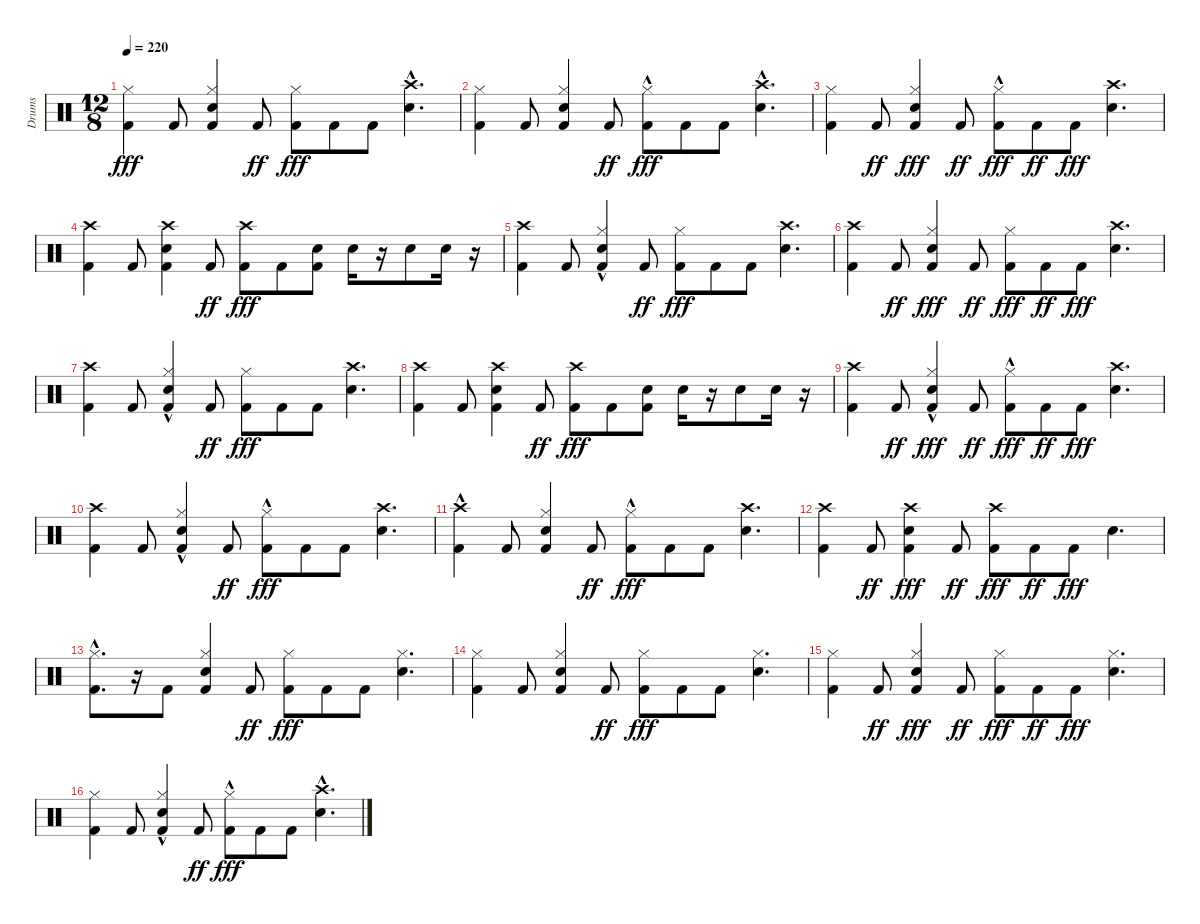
\track ("Drums" "Drums") {instrument percussion}
\staff {score}
\articulation defaults
\ts (12 8)
\tempo 220
\clef neutral
\ks c
("Kick (hit) 2" "Hi-Hat (closed)").4{dy fff} "Kick (hit) 2".8 ("Kick (hit) 2" "Snare (hit) 2" "Hi-Hat (closed)").4 "Kick (hit) 2".8{dy ff} ("Kick (hit) 2" "Hi-Hat (closed)").8{dy fff} "Kick (hit) 2".8 "Kick (hit) 2".8 ("Snare (hit) 2" "Crash high (hit)"{hac}).4{d} |
("Kick (hit) 2" "Hi-Hat (closed)").4 "Kick (hit) 2".8 ("Kick (hit) 2" "Snare (hit) 2" "Hi-Hat (closed)").4 "Kick (hit) 2".8{dy ff} ("Kick (hit) 2" "Hi-Hat (closed)"{hac}).8{dy fff} "Kick (hit) 2".8 "Kick (hit) 2".8 ("Snare (hit) 2" "Crash high (hit)"{hac}).4{d} |
("Kick (hit) 2" "Hi-Hat (closed)").4 "Kick (hit) 2".8{dy ff} ("Kick (hit) 2" "Snare (hit) 2" "Hi-Hat (closed)").4{dy fff} "Kick (hit) 2".8{dy ff} ("Kick (hit) 2" "Hi-Hat (closed)"{hac}).8{dy fff} "Kick (hit) 2".8{dy ff} "Kick (hit) 2".8{dy fff} ("Snare (hit) 2" "Crash high (hit)").4{d} |
("Kick (hit) 2" "Crash high (hit)").4 "Kick (hit) 2".8 ("Kick (hit) 2" "Snare (hit) 2" "Crash high (hit)").4 "Kick (hit) 2".8{dy ff} ("Kick (hit) 2" "Crash high (hit)").8{dy fff} "Kick (hit) 2".8 ("Kick (hit) 2" "Snare (hit) 2").8 "Snare (hit) 2".16 r.16 "Snare (hit) 2".8 "Snare (hit) 2".16 r.16 |
("Kick (hit) 2" "Crash high (hit)").4 "Kick (hit) 2".8 ("Kick (hit) 2" "Snare (hit) 2" "Hi-Hat (closed)"{hac}).4 "Kick (hit) 2".8{dy ff} ("Kick (hit) 2" "Hi-Hat (closed)").8{dy fff} "Kick (hit) 2".8 "Kick (hit) 2".8 ("Snare (hit) 2" "Crash high (hit)").4{d} |
("Kick (hit) 2" "Crash high (hit)").4 "Kick (hit) 2".8{dy ff} ("Kick (hit) 2" "Snare (hit) 2" "Hi-Hat (closed)").4{dy fff} "Kick (hit) 2".8{dy ff} ("Kick (hit) 2" "Hi-Hat (closed)").8{dy fff} "Kick (hit) 2".8{dy ff} "Kick (hit) 2".8{dy fff} ("Snare (hit) 2" "Crash high (hit)").4{d} |
("Kick (hit) 2" "Crash high (hit)").4 "Kick (hit) 2".8 ("Kick (hit) 2" "Snare (hit) 2" "Hi-Hat (closed)"{hac}).4 "Kick (hit) 2".8{dy ff} ("Kick (hit) 2" "Hi-Hat (closed)").8{dy fff} "Kick (hit) 2".8 "Kick (hit) 2".8 ("Snare (hit) 2" "Crash high (hit)").4{d} |
("Kick (hit) 2" "Crash high (hit)").4 "Kick (hit) 2".8 ("Kick (hit) 2" "Snare (hit) 2" "Crash high (hit)").4 "Kick (hit) 2".8{dy ff} ("Kick (hit) 2" "Crash high (hit)").8{dy fff} "Kick (hit) 2".8 ("Kick (hit) 2" "Snare (hit) 2").8 "Snare (hit) 2".16 r.16 "Snare (hit) 2".8 "Snare (hit) 2".16 r.16 |
("Kick (hit) 2" "Crash high (hit)").4 "Kick (hit) 2".8{dy ff} ("Kick (hit) 2" "Snare (hit) 2" "Hi-Hat (closed)"{hac}).4{dy fff} "Kick (hit) 2".8{dy ff} ("Kick (hit) 2" "Hi-Hat (closed)"{hac}).8{dy fff} "Kick (hit) 2".8{dy ff} "Kick (hit) 2".8{dy fff} ("Snare (hit) 2" "Crash high (hit)").4{d} |
("Kick (hit) 2" "Crash high (hit)").4 "Kick (hit) 2".8 ("Kick (hit) 2" "Snare (hit) 2" "Hi-Hat (closed)"{hac}).4 "Kick (hit) 2".8{dy ff} ("Kick (hit) 2" "Hi-Hat (closed)"{hac}).8{dy fff} "Kick (hit) 2".8 "Kick (hit) 2".8 ("Snare (hit) 2" "Crash high (hit)").4{d} |
("Kick (hit) 2" "Crash high (hit)"{hac}).4 "Kick (hit) 2".8 ("Kick (hit) 2" "Snare (hit) 2" "Hi-Hat (closed)").4 "Kick (hit) 2".8{dy ff} ("Kick (hit) 2" "Hi-Hat (closed)"{hac}).8{dy fff} "Kick (hit) 2".8 "Kick (hit) 2".8 ("Snare (hit) 2" "Crash high (hit)").4{d} |
("Kick (hit) 2" "Crash high (hit)").4 "Kick (hit) 2".8{dy ff} ("Kick (hit) 2" "Snare (hit) 2" "Crash high (hit)").4{dy fff} "Kick (hit) 2".8{dy ff} ("Kick (hit) 2" "Crash high (hit)").8{dy fff} "Kick (hit) 2".8{dy ff} "Kick (hit) 2".8{dy fff} "Snare (hit) 2".4{d} |
("Kick (hit) 2" "Hi-Hat (closed)"{hac}).8{d} r.16 "Kick (hit) 2".8 ("Kick (hit) 2" "Snare (hit) 2" "Hi-Hat (closed)").4 "Kick (hit) 2".8{dy ff} ("Kick (hit) 2" "Hi-Hat (closed)").8{dy fff} "Kick (hit) 2".8 "Kick (hit) 2".8 ("Snare (hit) 2" "Hi-Hat (closed)").4{d} |
("Kick (hit) 2" "Hi-Hat (closed)").4 "Kick (hit) 2".8 ("Kick (hit) 2" "Snare (hit) 2" "Hi-Hat (closed)").4 "Kick (hit) 2".8{dy ff} ("Kick (hit) 2" "Hi-Hat (closed)").8{dy fff} "Kick (hit) 2".8 "Kick (hit) 2".8 ("Snare (hit) 2" "Hi-Hat (closed)").4{d} |
("Kick (hit) 2" "Hi-Hat (closed)").4 "Kick (hit) 2".8{dy ff} ("Kick (hit) 2" "Snare (hit) 2" "Hi-Hat (closed)").4{dy fff} "Kick (hit) 2".8{dy ff} ("Kick (hit) 2" "Hi-Hat (closed)").8{dy fff} "Kick (hit) 2".8{dy ff} "Kick (hit) 2".8{dy fff} ("Snare (hit) 2" "Hi-Hat (closed)").4{d} |
("Kick (hit) 2" "Hi-Hat (closed)").4 "Kick (hit) 2".8 ("Kick (hit) 2" "Snare (hit) 2"{hac} "Hi-Hat (closed)").4 "Kick (hit) 2".8{dy ff} ("Kick (hit) 2" "Hi-Hat (closed)"{hac}).8{dy fff} "Kick (hit) 2".8 "Kick (hit) 2".8 ("Snare (hit) 2"{hac} "Crash high (hit)"{hac}).4{d}
